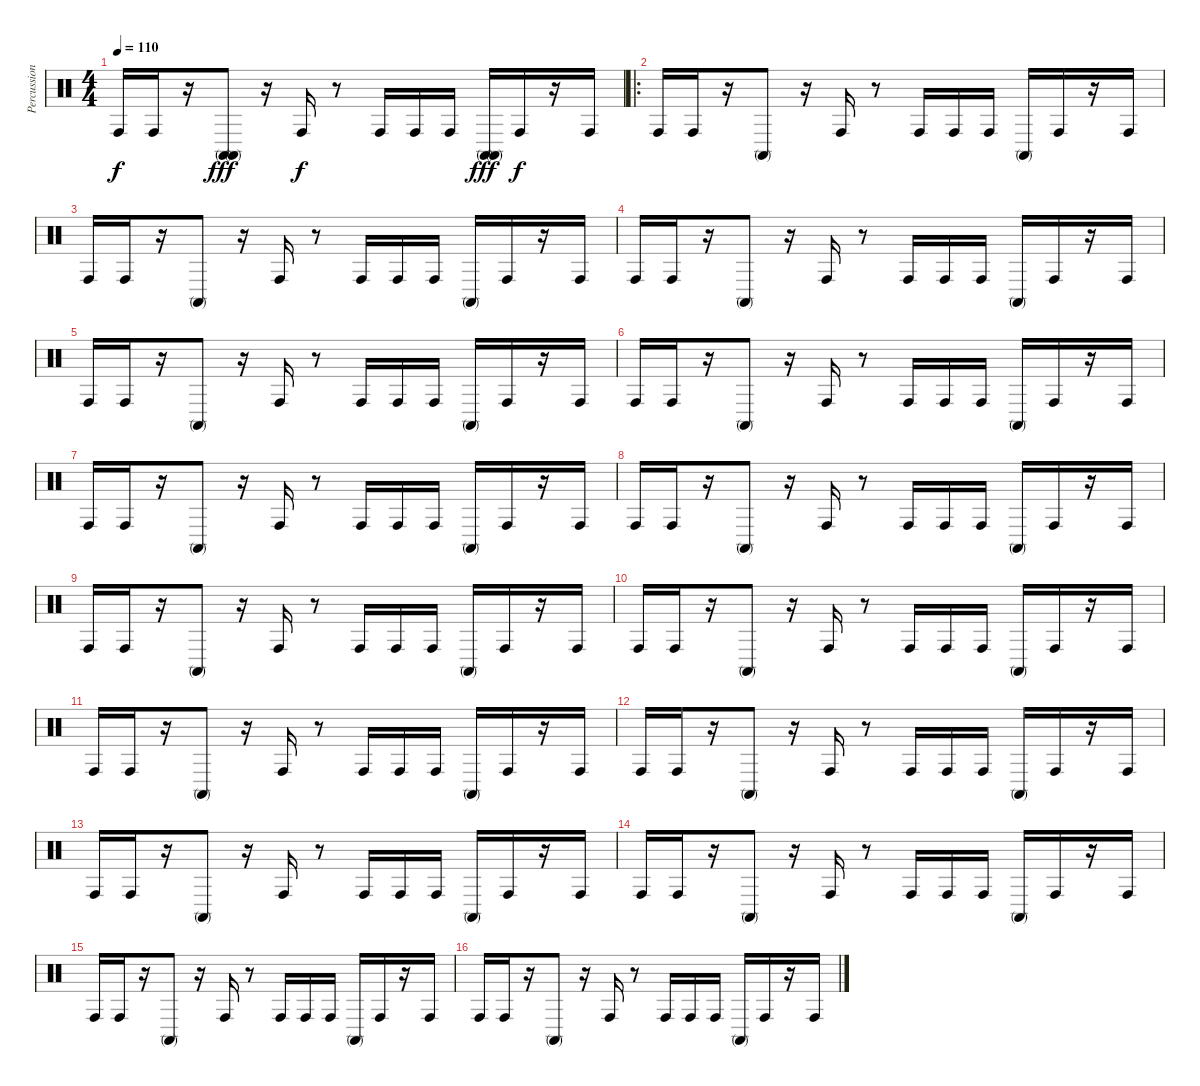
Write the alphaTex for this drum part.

\track ("Percussion" "Percussion") {instrument percussion}
\staff {score}
\articulation defaults
\ts (4 4)
\tempo 110
\clef neutral
\ks c "Conga high (hit)".16{dy f} "Conga high (hit)".16
r.16 ("Conga high (mute)" "Conga high (mute)").8{dy fff} r.16 "Conga high (hit)".16{dy f} r.8 "Conga high (hit)".16 "Conga high (hit)".16 "Conga high (hit)".16 ("Conga high (mute)" "Conga high (mute)").16{dy fff} "Conga high (hit)".16{dy f} r.16 "Conga high (hit)".16 |
\ro "Conga high (hit)".16 "Conga high (hit)".16
r.16 "Conga high (mute)".8 r.16 "Conga high (hit)".16 r.8 "Conga high (hit)".16 "Conga high (hit)".16 "Conga high (hit)".16 "Conga high (mute)".16 "Conga high (hit)".16 r.16 "Conga high (hit)".16 |
"Conga high (hit)".16 "Conga high (hit)".16 r.16 "Conga high (mute)".8 r.16 "Conga high (hit)".16 r.8 "Conga high (hit)".16 "Conga high (hit)".16 "Conga high (hit)".16 "Conga high (mute)".16 "Conga high (hit)".16 r.16 "Conga high (hit)".16 |
"Conga high (hit)".16 "Conga high (hit)".16 r.16 "Conga high (mute)".8 r.16 "Conga high (hit)".16 r.8 "Conga high (hit)".16 "Conga high (hit)".16 "Conga high (hit)".16 "Conga high (mute)".16 "Conga high (hit)".16 r.16 "Conga high (hit)".16 |
"Conga high (hit)".16 "Conga high (hit)".16 r.16 "Conga high (mute)".8 r.16 "Conga high (hit)".16 r.8 "Conga high (hit)".16 "Conga high (hit)".16 "Conga high (hit)".16 "Conga high (mute)".16 "Conga high (hit)".16 r.16 "Conga high (hit)".16 |
"Conga high (hit)".16 "Conga high (hit)".16 r.16 "Conga high (mute)".8 r.16 "Conga high (hit)".16 r.8 "Conga high (hit)".16 "Conga high (hit)".16 "Conga high (hit)".16 "Conga high (mute)".16 "Conga high (hit)".16 r.16 "Conga high (hit)".16 |
"Conga high (hit)".16 "Conga high (hit)".16 r.16 "Conga high (mute)".8 r.16 "Conga high (hit)".16 r.8 "Conga high (hit)".16 "Conga high (hit)".16 "Conga high (hit)".16 "Conga high (mute)".16 "Conga high (hit)".16 r.16 "Conga high (hit)".16 |
"Conga high (hit)".16 "Conga high (hit)".16 r.16 "Conga high (mute)".8 r.16 "Conga high (hit)".16 r.8 "Conga high (hit)".16 "Conga high (hit)".16 "Conga high (hit)".16 "Conga high (mute)".16 "Conga high (hit)".16 r.16 "Conga high (hit)".16 |
"Conga high (hit)".16 "Conga high (hit)".16 r.16 "Conga high (mute)".8 r.16 "Conga high (hit)".16 r.8 "Conga high (hit)".16 "Conga high (hit)".16 "Conga high (hit)".16 "Conga high (mute)".16 "Conga high (hit)".16 r.16 "Conga high (hit)".16 |
"Conga high (hit)".16 "Conga high (hit)".16 r.16 "Conga high (mute)".8 r.16 "Conga high (hit)".16 r.8 "Conga high (hit)".16 "Conga high (hit)".16 "Conga high (hit)".16 "Conga high (mute)".16 "Conga high (hit)".16 r.16 "Conga high (hit)".16 |
"Conga high (hit)".16 "Conga high (hit)".16 r.16 "Conga high (mute)".8 r.16 "Conga high (hit)".16 r.8 "Conga high (hit)".16 "Conga high (hit)".16 "Conga high (hit)".16 "Conga high (mute)".16 "Conga high (hit)".16 r.16 "Conga high (hit)".16 |
"Conga high (hit)".16 "Conga high (hit)".16 r.16 "Conga high (mute)".8 r.16 "Conga high (hit)".16 r.8 "Conga high (hit)".16 "Conga high (hit)".16 "Conga high (hit)".16 "Conga high (mute)".16 "Conga high (hit)".16 r.16 "Conga high (hit)".16 |
"Conga high (hit)".16 "Conga high (hit)".16 r.16 "Conga high (mute)".8 r.16 "Conga high (hit)".16 r.8 "Conga high (hit)".16 "Conga high (hit)".16 "Conga high (hit)".16 "Conga high (mute)".16 "Conga high (hit)".16 r.16 "Conga high (hit)".16 |
"Conga high (hit)".16 "Conga high (hit)".16 r.16 "Conga high (mute)".8 r.16 "Conga high (hit)".16 r.8 "Conga high (hit)".16 "Conga high (hit)".16 "Conga high (hit)".16 "Conga high (mute)".16 "Conga high (hit)".16 r.16 "Conga high (hit)".16 |
"Conga high (hit)".16 "Conga high (hit)".16 r.16 "Conga high (mute)".8 r.16 "Conga high (hit)".16 r.8 "Conga high (hit)".16 "Conga high (hit)".16 "Conga high (hit)".16 "Conga high (mute)".16 "Conga high (hit)".16 r.16 "Conga high (hit)".16 |
"Conga high (hit)".16 "Conga high (hit)".16 r.16 "Conga high (mute)".8 r.16 "Conga high (hit)".16 r.8 "Conga high (hit)".16 "Conga high (hit)".16 "Conga high (hit)".16 "Conga high (mute)".16 "Conga high (hit)".16 r.16 "Conga high (hit)".16
